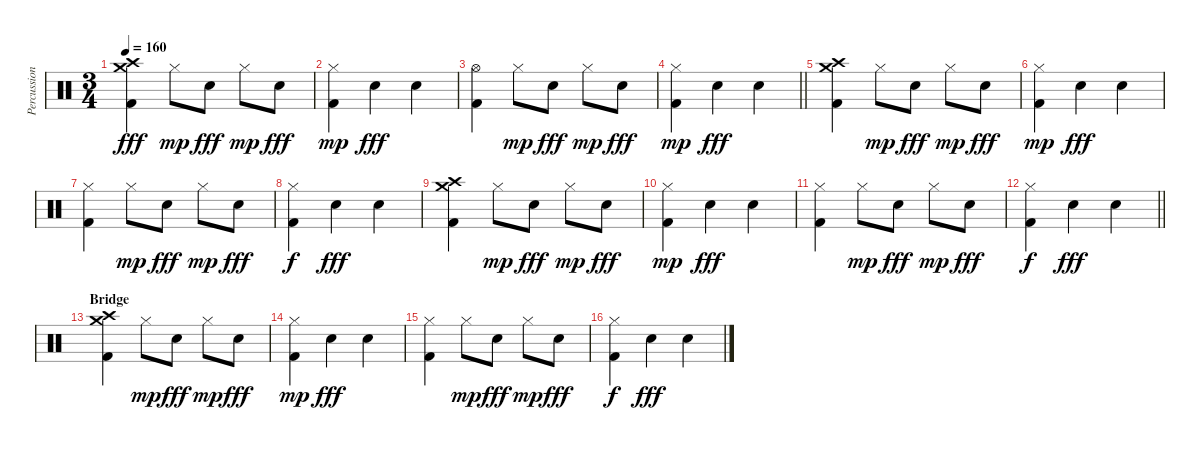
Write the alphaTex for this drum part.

\track ("Percussion" "Percussion") {solo instrument percussion}
\staff {score}
\articulation defaults
\ts (3 4)
\tempo 160
\clef neutral
\ks c
("Crash medium (hit)" "Crash high (hit)" "Kick (hit) 2").4{dy fff} "Hi-Hat (closed)".8{dy mp} "Electric Snare (hit)".8{dy fff} "Hi-Hat (closed)".8{dy mp} "Electric Snare (hit)".8{dy fff} |
("Hi-Hat (closed)" "Kick (hit) 2").4{dy mp} "Electric Snare (hit)".4{dy fff} "Electric Snare (hit)".4 |
("Hi-Hat (open)" "Kick (hit) 2").4 "Hi-Hat (closed)".8{dy mp} "Electric Snare (hit)".8{dy fff} "Hi-Hat (closed)".8{dy mp} "Electric Snare (hit)".8{dy fff} |
\barLineRight lightlight
("Hi-Hat (closed)" "Kick (hit) 2").4{dy mp} "Electric Snare (hit)".4{dy fff} "Electric Snare (hit)".4 |
("Crash medium (hit)" "Crash high (hit)" "Kick (hit) 2").4 "Hi-Hat (closed)".8{dy mp} "Electric Snare (hit)".8{dy fff} "Hi-Hat (closed)".8{dy mp} "Electric Snare (hit)".8{dy fff} |
("Hi-Hat (closed)" "Kick (hit) 2").4{dy mp} "Electric Snare (hit)".4{dy fff} "Electric Snare (hit)".4 |
("Hi-Hat (closed)" "Kick (hit) 2").4 "Hi-Hat (closed)".8{dy mp} "Electric Snare (hit)".8{dy fff} "Hi-Hat (closed)".8{dy mp} "Electric Snare (hit)".8{dy fff} |
("Hi-Hat (closed)" "Kick (hit) 2").4{dy f} "Electric Snare (hit)".4{dy fff} "Electric Snare (hit)".4 |
("Crash medium (hit)" "Crash high (hit)" "Kick (hit) 2").4 "Hi-Hat (closed)".8{dy mp} "Electric Snare (hit)".8{dy fff} "Hi-Hat (closed)".8{dy mp} "Electric Snare (hit)".8{dy fff} |
("Hi-Hat (closed)" "Kick (hit) 2").4{dy mp} "Electric Snare (hit)".4{dy fff} "Electric Snare (hit)".4 |
("Hi-Hat (closed)" "Kick (hit) 2").4 "Hi-Hat (closed)".8{dy mp} "Electric Snare (hit)".8{dy fff} "Hi-Hat (closed)".8{dy mp} "Electric Snare (hit)".8{dy fff} |
\barLineRight lightlight
("Hi-Hat (closed)" "Kick (hit) 2").4{dy f} "Electric Snare (hit)".4{dy fff} "Electric Snare (hit)".4 |
\section ("" "Bridge")
("Crash medium (hit)" "Crash high (hit)" "Kick (hit) 2").4 "Hi-Hat (closed)".8{dy mp} "Electric Snare (hit)".8{dy fff} "Hi-Hat (closed)".8{dy mp} "Electric Snare (hit)".8{dy fff} |
("Hi-Hat (closed)" "Kick (hit) 2").4{dy mp} "Electric Snare (hit)".4{dy fff} "Electric Snare (hit)".4 |
("Hi-Hat (closed)" "Kick (hit) 2").4 "Hi-Hat (closed)".8{dy mp} "Electric Snare (hit)".8{dy fff} "Hi-Hat (closed)".8{dy mp} "Electric Snare (hit)".8{dy fff} |
("Hi-Hat (closed)" "Kick (hit) 2").4{dy f} "Electric Snare (hit)".4{dy fff} "Electric Snare (hit)".4
